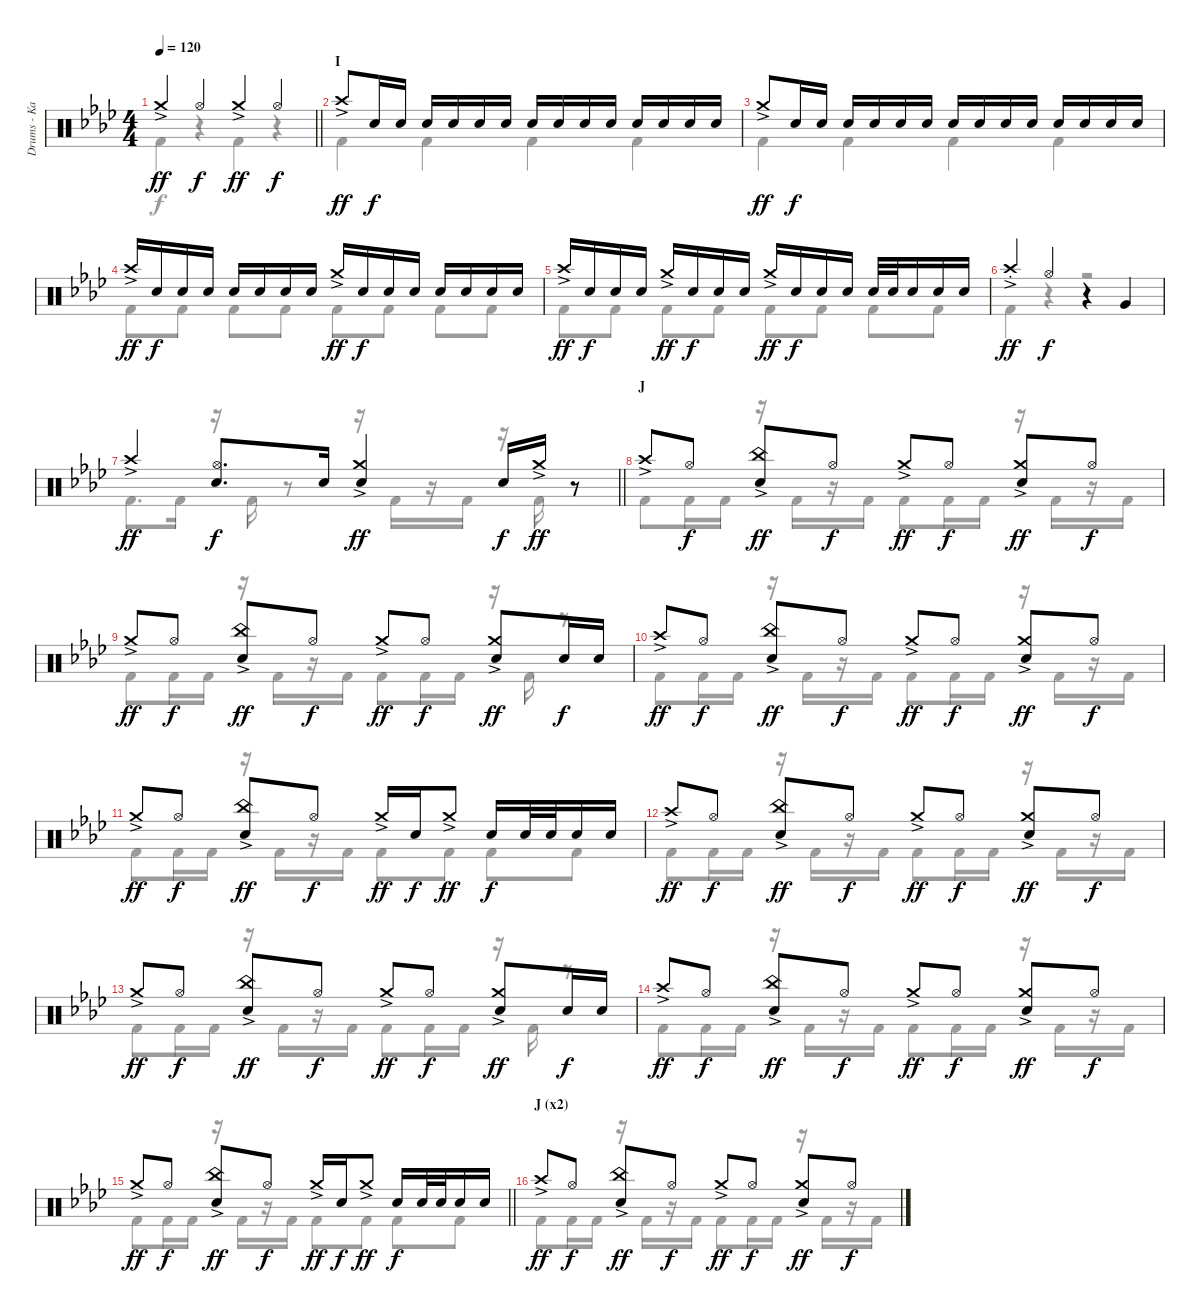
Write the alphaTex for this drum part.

\track ("Drums - Kai" "Drums - Ka") {instrument percussion}
\staff {score}
\articulation defaults
\voice
\ts (4 4)
\tempo 120
\clef neutral
\barLineRight lightlight
\ks ab "Crash medium (hit)"{ac}.4{dy ff} "Hi-Hat (open)".4{dy f} "Crash medium (hit)"{ac}.4{dy ff} "Hi-Hat (open)".4{dy f}
|
\section ("" "I")
"Crash high (hit)"{ac}.8{dy ff} "Snare (hit) 2".16{dy f} "Snare (hit) 2".16 "Snare (hit) 2".16 "Snare (hit) 2".16 "Snare (hit) 2".16 "Snare (hit) 2".16 "Snare (hit) 2".16 "Snare (hit) 2".16 "Snare (hit) 2".16 "Snare (hit) 2".16 "Snare (hit) 2".16 "Snare (hit) 2".16 "Snare (hit) 2".16 "Snare (hit) 2".16 |
"Crash medium (hit)"{ac}.8{dy ff} "Snare (hit) 2".16{dy f} "Snare (hit) 2".16 "Snare (hit) 2".16 "Snare (hit) 2".16 "Snare (hit) 2".16 "Snare (hit) 2".16 "Snare (hit) 2".16 "Snare (hit) 2".16 "Snare (hit) 2".16 "Snare (hit) 2".16 "Snare (hit) 2".16 "Snare (hit) 2".16 "Snare (hit) 2".16 "Snare (hit) 2".16 |
"Crash high (hit)"{ac}.16{dy ff} "Snare (hit) 2".16{dy f} "Snare (hit) 2".16 "Snare (hit) 2".16 "Snare (hit) 2".16 "Snare (hit) 2".16 "Snare (hit) 2".16 "Snare (hit) 2".16 "Crash medium (hit)"{ac}.16{dy ff} "Snare (hit) 2".16{dy f} "Snare (hit) 2".16 "Snare (hit) 2".16 "Snare (hit) 2".16 "Snare (hit) 2".16 "Snare (hit) 2".16 "Snare (hit) 2".16 |
"Crash high (hit)"{ac}.16{dy ff} "Snare (hit) 2".16{dy f} "Snare (hit) 2".16 "Snare (hit) 2".16 "Crash medium (hit)"{ac}.16{dy ff} "Snare (hit) 2".16{dy f} "Snare (hit) 2".16 "Snare (hit) 2".16 "Crash medium (hit)"{ac}.16{dy ff} "Snare (hit) 2".16{dy f} "Snare (hit) 2".16 "Snare (hit) 2".16 "Snare (hit) 2".32 "Snare (hit) 2".32 "Snare (hit) 2".16 "Snare (hit) 2".16 "Snare (hit) 2".16 |
"Crash high (hit)"{ac st}.4{dy ff} "Hi-Hat (open)".4{dy f} r.4 "Very Low Tom (hit)".4 |
\barLineRight lightlight "Crash high (hit)"{ac}.4{dy ff}
("Hi-Hat (open)" "Snare (hit) 2").8{d dy f} "Snare (hit) 2".16 ("Crash medium (hit)"{ac} "Snare (hit) 2").4{dy ff} "Snare (hit) 2".16{dy f} "Crash medium (hit)"{ac}.16{dy ff} r.8 |
\section ("" "J")
"Crash high (hit)"{ac}.8 "Hi-Hat (open)".8{dy f} ("China (hit)"{ac} "Snare (hit) 2").8{dy ff} "Hi-Hat (open)".8{dy f} "Crash medium (hit)"{ac}.8{dy ff} "Hi-Hat (open)".8{dy f} ("Crash medium (hit)"{ac} "Snare (hit) 2").8{dy ff} "Hi-Hat (open)".8{dy f} |
"Crash medium (hit)"{ac}.8{dy ff} "Hi-Hat (open)".8{dy f} ("China (hit)"{ac} "Snare (hit) 2").8{dy ff} "Hi-Hat (open)".8{dy f} "Crash medium (hit)"{ac}.8{dy ff} "Hi-Hat (open)".8{dy f} ("Crash medium (hit)"{ac} "Snare (hit) 2").8{dy ff} "Snare (hit) 2".16{dy f} "Snare (hit) 2".16 |
"Crash high (hit)"{ac}.8{dy ff} "Hi-Hat (open)".8{dy f} ("China (hit)"{ac} "Snare (hit) 2").8{dy ff} "Hi-Hat (open)".8{dy f} "Crash medium (hit)"{ac}.8{dy ff} "Hi-Hat (open)".8{dy f} ("Crash medium (hit)"{ac} "Snare (hit) 2").8{dy ff} "Hi-Hat (open)".8{dy f} |
"Crash medium (hit)"{ac}.8{dy ff} "Hi-Hat (open)".8{dy f} ("China (hit)"{ac} "Snare (hit) 2").8{dy ff} "Hi-Hat (open)".8{dy f} "Crash medium (hit)"{ac}.16{dy ff} "Snare (hit) 2".16{dy f} "Crash medium (hit)"{ac}.8{dy ff} "Snare (hit) 2".16{dy f} "Snare (hit) 2".32 "Snare (hit) 2".32 "Snare (hit) 2".16 "Snare (hit) 2".16 |
"Crash high (hit)"{ac}.8{dy ff} "Hi-Hat (open)".8{dy f} ("China (hit)"{ac} "Snare (hit) 2").8{dy ff} "Hi-Hat (open)".8{dy f} "Crash medium (hit)"{ac}.8{dy ff} "Hi-Hat (open)".8{dy f} ("Crash medium (hit)"{ac} "Snare (hit) 2").8{dy ff} "Hi-Hat (open)".8{dy f} |
"Crash medium (hit)"{ac}.8{dy ff} "Hi-Hat (open)".8{dy f} ("China (hit)"{ac} "Snare (hit) 2").8{dy ff} "Hi-Hat (open)".8{dy f} "Crash medium (hit)"{ac}.8{dy ff} "Hi-Hat (open)".8{dy f} ("Crash medium (hit)"{ac} "Snare (hit) 2").8{dy ff} "Snare (hit) 2".16{dy f} "Snare (hit) 2".16 |
"Crash high (hit)"{ac}.8{dy ff} "Hi-Hat (open)".8{dy f} ("China (hit)"{ac} "Snare (hit) 2").8{dy ff} "Hi-Hat (open)".8{dy f} "Crash medium (hit)"{ac}.8{dy ff} "Hi-Hat (open)".8{dy f} ("Crash medium (hit)"{ac} "Snare (hit) 2").8{dy ff} "Hi-Hat (open)".8{dy f} |
\barLineRight lightlight "Crash medium (hit)"{ac}.8{dy ff} "Hi-Hat (open)".8{dy f}
("China (hit)"{ac} "Snare (hit) 2").8{dy ff} "Hi-Hat (open)".8{dy f} "Crash medium (hit)"{ac}.16{dy ff} "Snare (hit) 2".16{dy f} "Crash medium (hit)"{ac}.8{dy ff} "Snare (hit) 2".16{dy f} "Snare (hit) 2".32 "Snare (hit) 2".32 "Snare (hit) 2".16 "Snare (hit) 2".16 |
\section ("" "J (x2)")
"Crash high (hit)"{ac}.8{dy ff} "Hi-Hat (open)".8{dy f} ("China (hit)"{ac} "Snare (hit) 2").8{dy ff} "Hi-Hat (open)".8{dy f} "Crash medium (hit)"{ac}.8{dy ff} "Hi-Hat (open)".8{dy f} ("Crash medium (hit)"{ac} "Snare (hit) 2").8{dy ff} "Hi-Hat (open)".8{dy f}
\voice
\clef neutral
\ottava regular
\simile none
\barLineRight lightlight
\ks ab "Kick (hit) 2".4{dy f}
r.4 "Kick (hit) 2".4 r.4 |
"Kick (hit) 2".4 "Kick (hit) 2".4 "Kick (hit) 2".4 "Kick (hit) 2".4 |
"Kick (hit) 2".4 "Kick (hit) 2".4 "Kick (hit) 2".4 "Kick (hit) 2".4 |
"Kick (hit) 2".8 "Kick (hit) 2".8 "Kick (hit) 2".8 "Kick (hit) 2".8 "Kick (hit) 2".8 "Kick (hit) 2".8 "Kick (hit) 2".8 "Kick (hit) 2".8 |
"Kick (hit) 2".8 "Kick (hit) 2".8 "Kick (hit) 2".8 "Kick (hit) 2".8 "Kick (hit) 2".8 "Kick (hit) 2".8 "Kick (hit) 2".8 "Kick (hit) 2".8 |
"Kick (hit) 2".4 r.4 r.2 |
\barLineRight lightlight "Kick (hit) 2".8{d} "Kick (hit) 2".16
r.16 "Kick (hit) 2".16 r.8 r.16 "Kick (hit) 2".16 r.16 "Kick (hit) 2".16 r.16 "Kick (hit) 2".16 r.8 |
"Kick (hit) 2".8 "Kick (hit) 2".16 "Kick (hit) 2".16 r.16 "Kick (hit) 2".16 r.16 "Kick (hit) 2".16 "Kick (hit) 2".8 "Kick (hit) 2".16 "Kick (hit) 2".16 r.16 "Kick (hit) 2".16 r.16 "Kick (hit) 2".16 |
"Kick (hit) 2".8 "Kick (hit) 2".16 "Kick (hit) 2".16 r.16 "Kick (hit) 2".16 r.16 "Kick (hit) 2".16 "Kick (hit) 2".8 "Kick (hit) 2".16 "Kick (hit) 2".16 r.16 "Kick (hit) 2".16 r.8 |
"Kick (hit) 2".8 "Kick (hit) 2".16 "Kick (hit) 2".16 r.16 "Kick (hit) 2".16 r.16 "Kick (hit) 2".16 "Kick (hit) 2".8 "Kick (hit) 2".16 "Kick (hit) 2".16 r.16 "Kick (hit) 2".16 r.16 "Kick (hit) 2".16 |
"Kick (hit) 2".8 "Kick (hit) 2".16 "Kick (hit) 2".16 r.16 "Kick (hit) 2".16 r.16 "Kick (hit) 2".16 "Kick (hit) 2".8 "Kick (hit) 2".8 "Kick (hit) 2".8 "Kick (hit) 2".8 |
"Kick (hit) 2".8 "Kick (hit) 2".16 "Kick (hit) 2".16 r.16 "Kick (hit) 2".16 r.16 "Kick (hit) 2".16 "Kick (hit) 2".8 "Kick (hit) 2".16 "Kick (hit) 2".16 r.16 "Kick (hit) 2".16 r.16 "Kick (hit) 2".16 |
"Kick (hit) 2".8 "Kick (hit) 2".16 "Kick (hit) 2".16 r.16 "Kick (hit) 2".16 r.16 "Kick (hit) 2".16 "Kick (hit) 2".8 "Kick (hit) 2".16 "Kick (hit) 2".16 r.16 "Kick (hit) 2".16 r.8 |
"Kick (hit) 2".8 "Kick (hit) 2".16 "Kick (hit) 2".16 r.16 "Kick (hit) 2".16 r.16 "Kick (hit) 2".16 "Kick (hit) 2".8 "Kick (hit) 2".16 "Kick (hit) 2".16 r.16 "Kick (hit) 2".16 r.16 "Kick (hit) 2".16 |
\barLineRight lightlight "Kick (hit) 2".8 "Kick (hit) 2".16 "Kick (hit) 2".16
r.16 "Kick (hit) 2".16 r.16 "Kick (hit) 2".16 "Kick (hit) 2".8 "Kick (hit) 2".8 "Kick (hit) 2".8 "Kick (hit) 2".8 |
"Kick (hit) 2".8 "Kick (hit) 2".16 "Kick (hit) 2".16 r.16 "Kick (hit) 2".16 r.16 "Kick (hit) 2".16 "Kick (hit) 2".8 "Kick (hit) 2".16 "Kick (hit) 2".16 r.16 "Kick (hit) 2".16 r.16 "Kick (hit) 2".16
